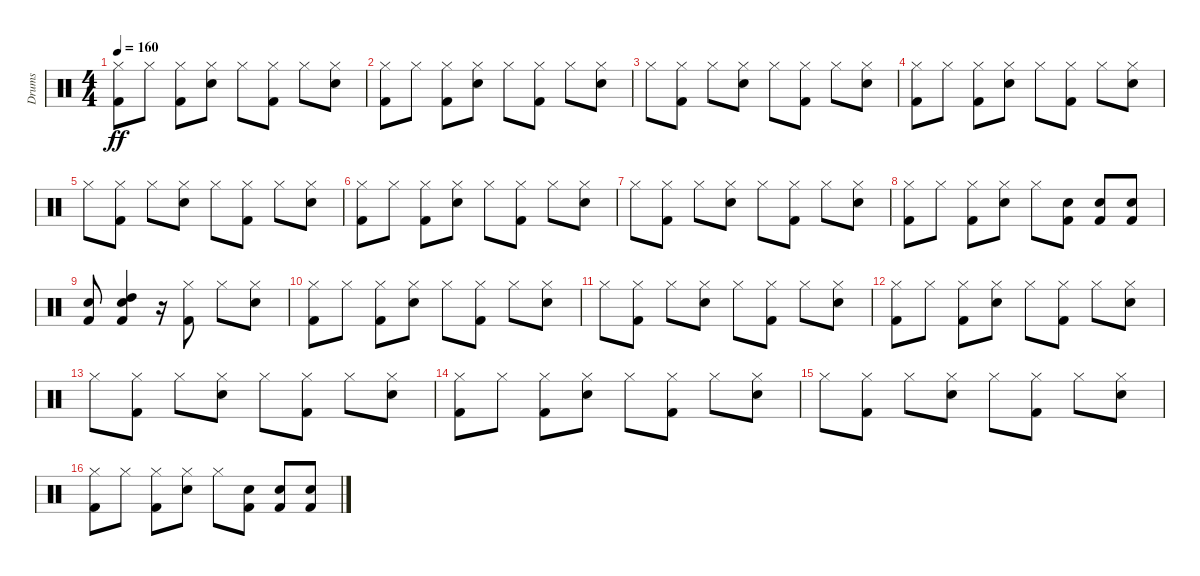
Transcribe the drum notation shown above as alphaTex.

\track ("Drums" "Drums") {instrument percussion}
\staff {score}
\articulation defaults
\ts (4 4)
\tempo 160
\clef neutral
\ks c
("Kick (hit) 2" "Hi-Hat (closed)").8{dy ff} "Hi-Hat (closed)".8 ("Kick (hit) 2" "Hi-Hat (closed)").8 ("Snare (hit) 2" "Hi-Hat (closed)").8 "Hi-Hat (closed)".8 ("Kick (hit) 2" "Hi-Hat (closed)").8 "Hi-Hat (closed)".8 ("Snare (hit) 2" "Hi-Hat (closed)").8 |
("Kick (hit) 2" "Hi-Hat (closed)").8 "Hi-Hat (closed)".8 ("Kick (hit) 2" "Hi-Hat (closed)").8 ("Snare (hit) 2" "Hi-Hat (closed)").8 "Hi-Hat (closed)".8 ("Kick (hit) 2" "Hi-Hat (closed)").8 "Hi-Hat (closed)".8 ("Snare (hit) 2" "Hi-Hat (closed)").8 |
"Hi-Hat (closed)".8 ("Kick (hit) 2" "Hi-Hat (closed)").8 "Hi-Hat (closed)".8 ("Snare (hit) 2" "Hi-Hat (closed)").8 "Hi-Hat (closed)".8 ("Kick (hit) 2" "Hi-Hat (closed)").8 "Hi-Hat (closed)".8 ("Snare (hit) 2" "Hi-Hat (closed)").8 |
("Kick (hit) 2" "Hi-Hat (closed)").8 "Hi-Hat (closed)".8 ("Kick (hit) 2" "Hi-Hat (closed)").8 ("Snare (hit) 2" "Hi-Hat (closed)").8 "Hi-Hat (closed)".8 ("Kick (hit) 2" "Hi-Hat (closed)").8 "Hi-Hat (closed)".8 ("Snare (hit) 2" "Hi-Hat (closed)").8 |
"Hi-Hat (closed)".8 ("Kick (hit) 2" "Hi-Hat (closed)").8 "Hi-Hat (closed)".8 ("Snare (hit) 2" "Hi-Hat (closed)").8 "Hi-Hat (closed)".8 ("Kick (hit) 2" "Hi-Hat (closed)").8 "Hi-Hat (closed)".8 ("Snare (hit) 2" "Hi-Hat (closed)").8 |
("Kick (hit) 2" "Hi-Hat (closed)").8 "Hi-Hat (closed)".8 ("Kick (hit) 2" "Hi-Hat (closed)").8 ("Snare (hit) 2" "Hi-Hat (closed)").8 "Hi-Hat (closed)".8 ("Kick (hit) 2" "Hi-Hat (closed)").8 "Hi-Hat (closed)".8 ("Snare (hit) 2" "Hi-Hat (closed)").8 |
"Hi-Hat (closed)".8 ("Kick (hit) 2" "Hi-Hat (closed)").8 "Hi-Hat (closed)".8 ("Snare (hit) 2" "Hi-Hat (closed)").8 "Hi-Hat (closed)".8 ("Kick (hit) 2" "Hi-Hat (closed)").8 "Hi-Hat (closed)".8 ("Snare (hit) 2" "Hi-Hat (closed)").8 |
("Kick (hit) 2" "Hi-Hat (closed)").8 "Hi-Hat (closed)".8 ("Kick (hit) 2" "Hi-Hat (closed)").8 ("Snare (hit) 2" "Hi-Hat (closed)").8 "Hi-Hat (closed)".8 ("Kick (hit) 2" "Hand Clap (hit)").8 ("Kick (hit) 2" "Hand Clap (hit)").8 ("Kick (hit) 2" "Hand Clap (hit)").8 |
("Kick (hit) 2" "Hand Clap (hit)").8 ("Kick (hit) 2" "Hand Clap (hit)" "High Tom (hit)").4 r.16 ("Kick (hit) 2" "Hi-Hat (closed)").8 "Hi-Hat (closed)".8 ("Snare (hit) 2" "Hi-Hat (closed)").8 |
("Kick (hit) 2" "Hi-Hat (closed)").8 "Hi-Hat (closed)".8 ("Kick (hit) 2" "Hi-Hat (closed)").8 ("Snare (hit) 2" "Hi-Hat (closed)").8 "Hi-Hat (closed)".8 ("Kick (hit) 2" "Hi-Hat (closed)").8 "Hi-Hat (closed)".8 ("Snare (hit) 2" "Hi-Hat (closed)").8 |
"Hi-Hat (closed)".8 ("Kick (hit) 2" "Hi-Hat (closed)").8 "Hi-Hat (closed)".8 ("Snare (hit) 2" "Hi-Hat (closed)").8 "Hi-Hat (closed)".8 ("Kick (hit) 2" "Hi-Hat (closed)").8 "Hi-Hat (closed)".8 ("Snare (hit) 2" "Hi-Hat (closed)").8 |
("Kick (hit) 2" "Hi-Hat (closed)").8 "Hi-Hat (closed)".8 ("Kick (hit) 2" "Hi-Hat (closed)").8 ("Snare (hit) 2" "Hi-Hat (closed)").8 "Hi-Hat (closed)".8 ("Kick (hit) 2" "Hi-Hat (closed)").8 "Hi-Hat (closed)".8 ("Snare (hit) 2" "Hi-Hat (closed)").8 |
"Hi-Hat (closed)".8 ("Kick (hit) 2" "Hi-Hat (closed)").8 "Hi-Hat (closed)".8 ("Snare (hit) 2" "Hi-Hat (closed)").8 "Hi-Hat (closed)".8 ("Kick (hit) 2" "Hi-Hat (closed)").8 "Hi-Hat (closed)".8 ("Snare (hit) 2" "Hi-Hat (closed)").8 |
("Kick (hit) 2" "Hi-Hat (closed)").8 "Hi-Hat (closed)".8 ("Kick (hit) 2" "Hi-Hat (closed)").8 ("Snare (hit) 2" "Hi-Hat (closed)").8 "Hi-Hat (closed)".8 ("Kick (hit) 2" "Hi-Hat (closed)").8 "Hi-Hat (closed)".8 ("Snare (hit) 2" "Hi-Hat (closed)").8 |
"Hi-Hat (closed)".8 ("Kick (hit) 2" "Hi-Hat (closed)").8 "Hi-Hat (closed)".8 ("Snare (hit) 2" "Hi-Hat (closed)").8 "Hi-Hat (closed)".8 ("Kick (hit) 2" "Hi-Hat (closed)").8 "Hi-Hat (closed)".8 ("Snare (hit) 2" "Hi-Hat (closed)").8 |
("Kick (hit) 2" "Hi-Hat (closed)").8 "Hi-Hat (closed)".8 ("Kick (hit) 2" "Hi-Hat (closed)").8 ("Snare (hit) 2" "Hi-Hat (closed)").8 "Hi-Hat (closed)".8 ("Kick (hit) 2" "Hand Clap (hit)").8 ("Kick (hit) 2" "Hand Clap (hit)").8 ("Kick (hit) 2" "Hand Clap (hit)").8
